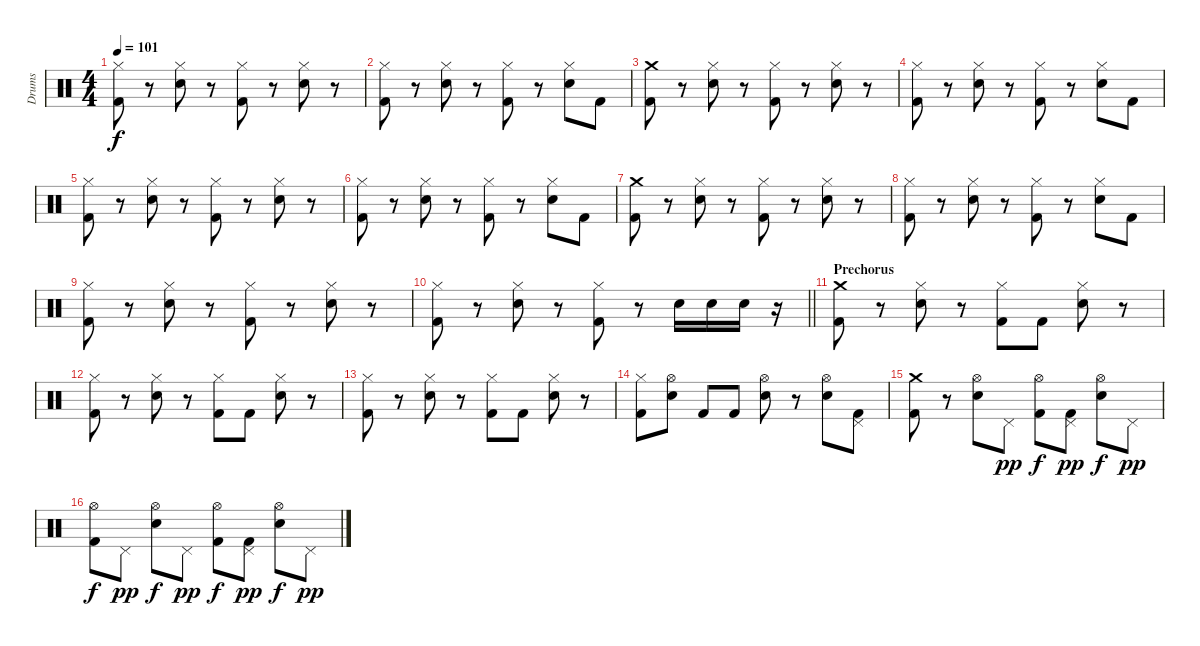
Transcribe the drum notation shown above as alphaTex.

\track ("Drums" "Drums") {instrument percussion}
\staff {score}
\articulation defaults
\ts (4 4)
\tempo 101
\clef neutral
\ks c
("Hi-Hat (closed)" "Kick (hit) 2").8{dy f} r.8 ("Hi-Hat (closed)" "Snare (hit) 2").8 r.8 ("Hi-Hat (closed)" "Kick (hit) 2").8 r.8 ("Hi-Hat (closed)" "Snare (hit) 2").8 r.8 |
("Hi-Hat (closed)" "Kick (hit) 2").8 r.8 ("Hi-Hat (closed)" "Snare (hit) 2").8 r.8 ("Hi-Hat (closed)" "Kick (hit) 2").8 r.8 ("Hi-Hat (closed)" "Snare (hit) 2").8 "Kick (hit) 2".8 |
("Crash medium (hit)" "Kick (hit) 2").8 r.8 ("Hi-Hat (closed)" "Snare (hit) 2").8 r.8 ("Hi-Hat (closed)" "Kick (hit) 2").8 r.8 ("Hi-Hat (closed)" "Snare (hit) 2").8 r.8 |
("Hi-Hat (closed)" "Kick (hit) 2").8 r.8 ("Hi-Hat (closed)" "Snare (hit) 2").8 r.8 ("Hi-Hat (closed)" "Kick (hit) 2").8 r.8 ("Hi-Hat (closed)" "Snare (hit) 2").8 "Kick (hit) 2".8 |
("Hi-Hat (closed)" "Kick (hit) 2").8 r.8 ("Hi-Hat (closed)" "Snare (hit) 2").8 r.8 ("Hi-Hat (closed)" "Kick (hit) 2").8 r.8 ("Hi-Hat (closed)" "Snare (hit) 2").8 r.8 |
("Hi-Hat (closed)" "Kick (hit) 2").8 r.8 ("Hi-Hat (closed)" "Snare (hit) 2").8 r.8 ("Hi-Hat (closed)" "Kick (hit) 2").8 r.8 ("Hi-Hat (closed)" "Snare (hit) 2").8 "Kick (hit) 2".8 |
("Crash medium (hit)" "Kick (hit) 2").8 r.8 ("Hi-Hat (closed)" "Snare (hit) 2").8 r.8 ("Hi-Hat (closed)" "Kick (hit) 2").8 r.8 ("Hi-Hat (closed)" "Snare (hit) 2").8 r.8 |
("Hi-Hat (closed)" "Kick (hit) 2").8 r.8 ("Hi-Hat (closed)" "Snare (hit) 2").8 r.8 ("Hi-Hat (closed)" "Kick (hit) 2").8 r.8 ("Hi-Hat (closed)" "Snare (hit) 2").8 "Kick (hit) 2".8 |
("Hi-Hat (closed)" "Kick (hit) 2").8 r.8 ("Hi-Hat (closed)" "Snare (hit) 2").8 r.8 ("Hi-Hat (closed)" "Kick (hit) 2").8 r.8 ("Hi-Hat (closed)" "Snare (hit) 2").8 r.8 |
\barLineRight lightlight
("Hi-Hat (closed)" "Kick (hit) 2").8 r.8 ("Hi-Hat (closed)" "Snare (hit) 2").8 r.8 ("Hi-Hat (closed)" "Kick (hit) 2").8 r.8 "Snare (hit) 2".16 "Snare (hit) 2".16 "Snare (hit) 2".16 r.16 |
\section ("" "Prechorus")
("Crash medium (hit)" "Kick (hit) 2").8 r.8 ("Hi-Hat (closed)" "Snare (hit) 2").8 r.8 ("Hi-Hat (closed)" "Kick (hit) 2").8 "Kick (hit) 2".8 ("Hi-Hat (closed)" "Snare (hit) 2").8 r.8 |
("Hi-Hat (closed)" "Kick (hit) 2").8 r.8 ("Hi-Hat (closed)" "Snare (hit) 2").8 r.8 ("Hi-Hat (closed)" "Kick (hit) 2").8 "Kick (hit) 2".8 ("Hi-Hat (closed)" "Snare (hit) 2").8 r.8 |
("Hi-Hat (closed)" "Kick (hit) 2").8 r.8 ("Hi-Hat (closed)" "Snare (hit) 2").8 r.8 ("Hi-Hat (closed)" "Kick (hit) 2").8 "Kick (hit) 2".8 ("Hi-Hat (closed)" "Snare (hit) 2").8 r.8 |
("Hi-Hat (closed)" "Kick (hit) 2").8 ("Hi-Hat (open)" "Snare (hit) 2").8 "Kick (hit) 2".8 "Kick (hit) 2".8 ("Hi-Hat (open)" "Snare (hit) 2").8 r.8 ("Hi-Hat (open)" "Snare (hit) 2").8 ("Pedal Hi-Hat (hit)" "Kick (hit) 2").8 |
("Crash medium (hit)" "Kick (hit) 2").8 r.8 ("Hi-Hat (open)" "Snare (hit) 2").8 "Pedal Hi-Hat (hit)".8{dy pp} ("Hi-Hat (open)" "Kick (hit) 2").8{dy f} ("Pedal Hi-Hat (hit)" "Kick (hit) 2").8{dy pp} ("Hi-Hat (open)" "Snare (hit) 2").8{dy f} "Pedal Hi-Hat (hit)".8{dy pp} |
("Hi-Hat (open)" "Kick (hit) 2").8{dy f} "Pedal Hi-Hat (hit)".8{dy pp} ("Hi-Hat (open)" "Snare (hit) 2").8{dy f} "Pedal Hi-Hat (hit)".8{dy pp} ("Hi-Hat (open)" "Kick (hit) 2").8{dy f} ("Pedal Hi-Hat (hit)" "Kick (hit) 2").8{dy pp} ("Hi-Hat (open)" "Snare (hit) 2").8{dy f} "Pedal Hi-Hat (hit)".8{dy pp}
